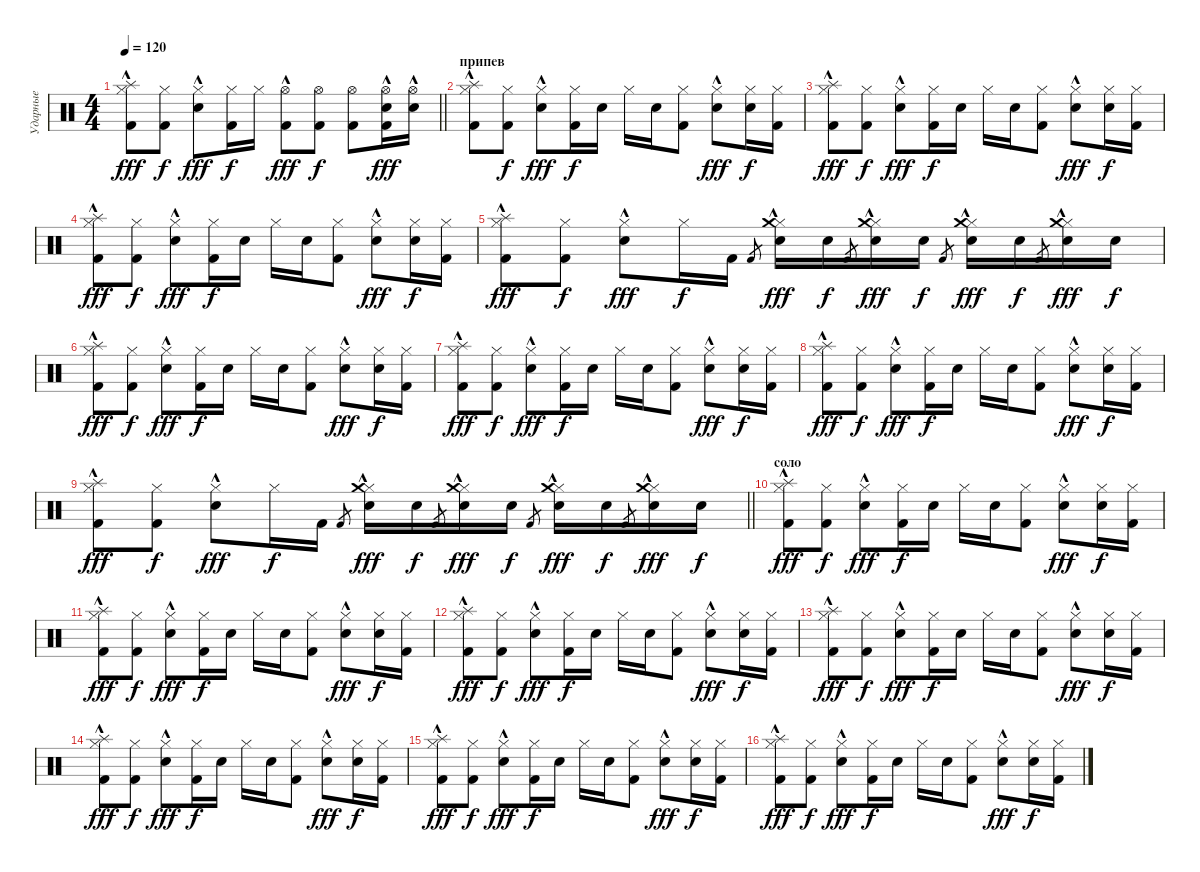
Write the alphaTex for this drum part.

\track ("Ударные" "Ударные") {instrument percussion}
\staff {score}
\articulation defaults
\ts (4 4)
\tempo 120
\clef neutral
\barLineRight lightlight
\ks c
("Hi-Hat (closed)"{hac} "Splash (hit)" "Kick (hit) 2"{hac}).8{dy fff} ("Hi-Hat (closed)" "Kick (hit) 2").8{dy f} ("Hi-Hat (closed)"{hac} "Snare (hit) 2"{hac}).8{dy fff} ("Hi-Hat (closed)" "Kick (hit) 2").16{dy f} "Hi-Hat (closed)".16 ("Hi-Hat (open)" "Kick (hit) 2"{hac}).8{dy fff} ("Hi-Hat (open)" "Kick (hit) 2").8{dy f} ("Hi-Hat (open)" "Kick (hit) 2").8 ("Hi-Hat (open)"{hac} "Snare (hit) 2"{hac} "Kick (hit) 2"{hac}).16{dy fff} ("Hi-Hat (open)"{hac} "Snare (hit) 2"{hac}).16 |
\section ("" "припев")
("Hi-Hat (closed)" "Splash (hit)" "Kick (hit) 2"{hac}).8 ("Hi-Hat (closed)" "Kick (hit) 2").8{dy f} ("Hi-Hat (closed)" "Snare (hit) 2"{hac}).8{dy fff} ("Hi-Hat (closed)" "Kick (hit) 2").16{dy f} "Snare (hit) 2".16 "Hi-Hat (closed)".16 "Snare (hit) 2".16 ("Hi-Hat (closed)" "Kick (hit) 2").8 ("Hi-Hat (closed)" "Snare (hit) 2"{hac}).8{dy fff} ("Hi-Hat (closed)" "Snare (hit) 2").16{dy f} ("Hi-Hat (closed)" "Kick (hit) 2").16 |
("Hi-Hat (closed)" "Splash (hit)" "Kick (hit) 2"{hac}).8{dy fff} ("Hi-Hat (closed)" "Kick (hit) 2").8{dy f} ("Hi-Hat (closed)" "Snare (hit) 2"{hac}).8{dy fff} ("Hi-Hat (closed)" "Kick (hit) 2").16{dy f} "Snare (hit) 2".16 "Hi-Hat (closed)".16 "Snare (hit) 2".16 ("Hi-Hat (closed)" "Kick (hit) 2").8 ("Hi-Hat (closed)" "Snare (hit) 2"{hac}).8{dy fff} ("Hi-Hat (closed)" "Snare (hit) 2").16{dy f} ("Hi-Hat (closed)" "Kick (hit) 2").16 |
("Hi-Hat (closed)" "Splash (hit)" "Kick (hit) 2"{hac}).8{dy fff} ("Hi-Hat (closed)" "Kick (hit) 2").8{dy f} ("Hi-Hat (closed)" "Snare (hit) 2"{hac}).8{dy fff} ("Hi-Hat (closed)" "Kick (hit) 2").16{dy f} "Snare (hit) 2".16 "Hi-Hat (closed)".16 "Snare (hit) 2".16 ("Hi-Hat (closed)" "Kick (hit) 2").8 ("Hi-Hat (closed)" "Snare (hit) 2"{hac}).8{dy fff} ("Hi-Hat (closed)" "Snare (hit) 2").16{dy f} ("Hi-Hat (closed)" "Kick (hit) 2").16 |
("Hi-Hat (closed)" "Splash (hit)" "Kick (hit) 2"{hac}).8{dy fff} ("Hi-Hat (closed)" "Kick (hit) 2").8{dy f} ("Hi-Hat (closed)" "Snare (hit) 2"{hac}).8{dy fff} "Hi-Hat (closed)".16{dy f} "Kick (hit) 2".16 "Kick (hit) 2".8{gr} ("Hi-Hat (closed)" "Crash medium (hit)" "Electric Snare (hit)"{hac}).16{dy fff} "Snare (hit) 2".16{dy f} "Kick (hit) 2".8{gr} ("Hi-Hat (closed)" "Crash medium (hit)" "Electric Snare (hit)"{hac}).16{dy fff} "Snare (hit) 2".16{dy f} "Kick (hit) 2".8{gr} ("Hi-Hat (closed)" "Crash medium (hit)" "Electric Snare (hit)"{hac}).16{dy fff} "Snare (hit) 2".16{dy f} "Kick (hit) 2".8{gr} ("Hi-Hat (closed)" "Crash medium (hit)" "Electric Snare (hit)"{hac}).16{dy fff} "Snare (hit) 2".16{dy f} |
("Hi-Hat (closed)" "Splash (hit)" "Kick (hit) 2"{hac}).8{dy fff} ("Hi-Hat (closed)" "Kick (hit) 2").8{dy f} ("Hi-Hat (closed)" "Snare (hit) 2"{hac}).8{dy fff} ("Hi-Hat (closed)" "Kick (hit) 2").16{dy f} "Snare (hit) 2".16 "Hi-Hat (closed)".16 "Snare (hit) 2".16 ("Hi-Hat (closed)" "Kick (hit) 2").8 ("Hi-Hat (closed)" "Snare (hit) 2"{hac}).8{dy fff} ("Hi-Hat (closed)" "Snare (hit) 2").16{dy f} ("Hi-Hat (closed)" "Kick (hit) 2").16 |
("Hi-Hat (closed)" "Splash (hit)" "Kick (hit) 2"{hac}).8{dy fff} ("Hi-Hat (closed)" "Kick (hit) 2").8{dy f} ("Hi-Hat (closed)" "Snare (hit) 2"{hac}).8{dy fff} ("Hi-Hat (closed)" "Kick (hit) 2").16{dy f} "Snare (hit) 2".16 "Hi-Hat (closed)".16 "Snare (hit) 2".16 ("Hi-Hat (closed)" "Kick (hit) 2").8 ("Hi-Hat (closed)" "Snare (hit) 2"{hac}).8{dy fff} ("Hi-Hat (closed)" "Snare (hit) 2").16{dy f} ("Hi-Hat (closed)" "Kick (hit) 2").16 |
("Hi-Hat (closed)" "Splash (hit)" "Kick (hit) 2"{hac}).8{dy fff} ("Hi-Hat (closed)" "Kick (hit) 2").8{dy f} ("Hi-Hat (closed)" "Snare (hit) 2"{hac}).8{dy fff} ("Hi-Hat (closed)" "Kick (hit) 2").16{dy f} "Snare (hit) 2".16 "Hi-Hat (closed)".16 "Snare (hit) 2".16 ("Hi-Hat (closed)" "Kick (hit) 2").8 ("Hi-Hat (closed)" "Snare (hit) 2"{hac}).8{dy fff} ("Hi-Hat (closed)" "Snare (hit) 2").16{dy f} ("Hi-Hat (closed)" "Kick (hit) 2").16 |
\barLineRight lightlight
("Hi-Hat (closed)" "Splash (hit)" "Kick (hit) 2"{hac}).8{dy fff} ("Hi-Hat (closed)" "Kick (hit) 2").8{dy f} ("Hi-Hat (closed)" "Snare (hit) 2"{hac}).8{dy fff} "Hi-Hat (closed)".16{dy f} "Kick (hit) 2".16 "Kick (hit) 2".8{gr} ("Hi-Hat (closed)" "Crash medium (hit)" "Electric Snare (hit)"{hac}).16{dy fff} "Snare (hit) 2".16{dy f} "Kick (hit) 2".8{gr} ("Hi-Hat (closed)" "Crash medium (hit)" "Electric Snare (hit)"{hac}).16{dy fff} "Snare (hit) 2".16{dy f} "Kick (hit) 2".8{gr} ("Hi-Hat (closed)" "Crash medium (hit)" "Electric Snare (hit)"{hac}).16{dy fff} "Snare (hit) 2".16{dy f} "Kick (hit) 2".8{gr} ("Hi-Hat (closed)" "Crash medium (hit)" "Electric Snare (hit)"{hac}).16{dy fff} "Snare (hit) 2".16{dy f} |
\section ("" "соло")
("Hi-Hat (closed)" "Splash (hit)" "Kick (hit) 2"{hac}).8{dy fff} ("Hi-Hat (closed)" "Kick (hit) 2").8{dy f} ("Hi-Hat (closed)" "Snare (hit) 2"{hac}).8{dy fff} ("Hi-Hat (closed)" "Kick (hit) 2").16{dy f} "Snare (hit) 2".16 "Hi-Hat (closed)".16 "Snare (hit) 2".16 ("Hi-Hat (closed)" "Kick (hit) 2").8 ("Hi-Hat (closed)" "Snare (hit) 2"{hac}).8{dy fff} ("Hi-Hat (closed)" "Snare (hit) 2").16{dy f} ("Hi-Hat (closed)" "Kick (hit) 2").16 |
("Hi-Hat (closed)" "Splash (hit)" "Kick (hit) 2"{hac}).8{dy fff} ("Hi-Hat (closed)" "Kick (hit) 2").8{dy f} ("Hi-Hat (closed)" "Snare (hit) 2"{hac}).8{dy fff} ("Hi-Hat (closed)" "Kick (hit) 2").16{dy f} "Snare (hit) 2".16 "Hi-Hat (closed)".16 "Snare (hit) 2".16 ("Hi-Hat (closed)" "Kick (hit) 2").8 ("Hi-Hat (closed)" "Snare (hit) 2"{hac}).8{dy fff} ("Hi-Hat (closed)" "Snare (hit) 2").16{dy f} ("Hi-Hat (closed)" "Kick (hit) 2").16 |
("Hi-Hat (closed)" "Splash (hit)" "Kick (hit) 2"{hac}).8{dy fff} ("Hi-Hat (closed)" "Kick (hit) 2").8{dy f} ("Hi-Hat (closed)" "Snare (hit) 2"{hac}).8{dy fff} ("Hi-Hat (closed)" "Kick (hit) 2").16{dy f} "Snare (hit) 2".16 "Hi-Hat (closed)".16 "Snare (hit) 2".16 ("Hi-Hat (closed)" "Kick (hit) 2").8 ("Hi-Hat (closed)" "Snare (hit) 2"{hac}).8{dy fff} ("Hi-Hat (closed)" "Snare (hit) 2").16{dy f} ("Hi-Hat (closed)" "Kick (hit) 2").16 |
("Hi-Hat (closed)" "Splash (hit)" "Kick (hit) 2"{hac}).8{dy fff} ("Hi-Hat (closed)" "Kick (hit) 2").8{dy f} ("Hi-Hat (closed)" "Snare (hit) 2"{hac}).8{dy fff} ("Hi-Hat (closed)" "Kick (hit) 2").16{dy f} "Snare (hit) 2".16 "Hi-Hat (closed)".16 "Snare (hit) 2".16 ("Hi-Hat (closed)" "Kick (hit) 2").8 ("Hi-Hat (closed)" "Snare (hit) 2"{hac}).8{dy fff} ("Hi-Hat (closed)" "Snare (hit) 2").16{dy f} ("Hi-Hat (closed)" "Kick (hit) 2").16 |
("Hi-Hat (closed)" "Splash (hit)" "Kick (hit) 2"{hac}).8{dy fff} ("Hi-Hat (closed)" "Kick (hit) 2").8{dy f} ("Hi-Hat (closed)" "Snare (hit) 2"{hac}).8{dy fff} ("Hi-Hat (closed)" "Kick (hit) 2").16{dy f} "Snare (hit) 2".16 "Hi-Hat (closed)".16 "Snare (hit) 2".16 ("Hi-Hat (closed)" "Kick (hit) 2").8 ("Hi-Hat (closed)" "Snare (hit) 2"{hac}).8{dy fff} ("Hi-Hat (closed)" "Snare (hit) 2").16{dy f} ("Hi-Hat (closed)" "Kick (hit) 2").16 |
("Hi-Hat (closed)" "Splash (hit)" "Kick (hit) 2"{hac}).8{dy fff} ("Hi-Hat (closed)" "Kick (hit) 2").8{dy f} ("Hi-Hat (closed)" "Snare (hit) 2"{hac}).8{dy fff} ("Hi-Hat (closed)" "Kick (hit) 2").16{dy f} "Snare (hit) 2".16 "Hi-Hat (closed)".16 "Snare (hit) 2".16 ("Hi-Hat (closed)" "Kick (hit) 2").8 ("Hi-Hat (closed)" "Snare (hit) 2"{hac}).8{dy fff} ("Hi-Hat (closed)" "Snare (hit) 2").16{dy f} ("Hi-Hat (closed)" "Kick (hit) 2").16 |
("Hi-Hat (closed)" "Splash (hit)" "Kick (hit) 2"{hac}).8{dy fff} ("Hi-Hat (closed)" "Kick (hit) 2").8{dy f} ("Hi-Hat (closed)" "Snare (hit) 2"{hac}).8{dy fff} ("Hi-Hat (closed)" "Kick (hit) 2").16{dy f} "Snare (hit) 2".16 "Hi-Hat (closed)".16 "Snare (hit) 2".16 ("Hi-Hat (closed)" "Kick (hit) 2").8 ("Hi-Hat (closed)" "Snare (hit) 2"{hac}).8{dy fff} ("Hi-Hat (closed)" "Snare (hit) 2").16{dy f} ("Hi-Hat (closed)" "Kick (hit) 2").16
